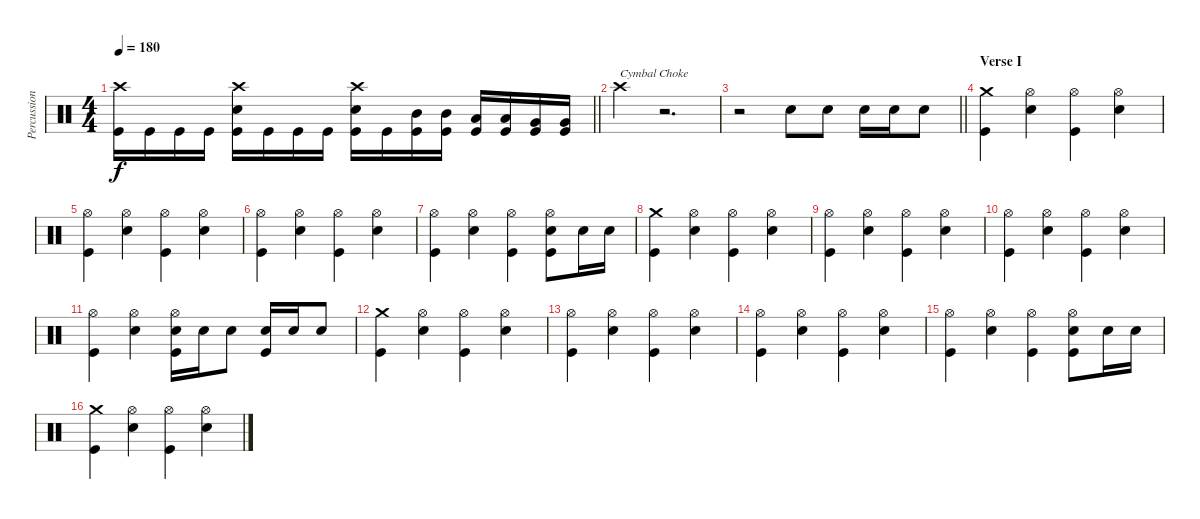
\track ("Percussion" "Percussion") {instrument percussion}
\staff {score}
\articulation defaults
\ts (4 4)
\tempo 180
\clef neutral
\barLineRight lightlight
\ks c
("Crash high (hit)" "Kick (hit)").16{dy f} "Kick (hit)".16 "Kick (hit)".16 "Kick (hit)".16 ("Crash high (hit)" "Electric Snare (hit)" "Kick (hit)").16 "Kick (hit)".16 "Kick (hit)".16 "Kick (hit)".16 ("Crash high (hit)" "Electric Snare (hit)" "Kick (hit)").16 "Kick (hit)".16 ("Mid Tom (hit)" "Kick (hit)").16 ("Mid Tom (hit)" "Kick (hit)").16 ("Low Tom (hit)" "Kick (hit)").16 ("Low Tom (hit)" "Kick (hit)").16 ("Very Low Tom (hit)" "Kick (hit)").16 ("Very Low Tom (hit)" "Kick (hit)").16 |
"Crash high (hit)".4{txt "Cymbal Choke"} r.2{d volume 0} |
\barLineRight lightlight
r.2 "Electric Snare (hit)".8{volume 13} "Electric Snare (hit)".8 "Electric Snare (hit)".16 "Electric Snare (hit)".16 "Electric Snare (hit)".8 |
\section ("" "Verse I")
("Crash medium (hit)" "Kick (hit)").4 ("Hi-Hat (open)" "Electric Snare (hit)").4 ("Hi-Hat (open)" "Kick (hit)").4 ("Hi-Hat (open)" "Electric Snare (hit)").4 |
("Hi-Hat (open)" "Kick (hit)").4 ("Hi-Hat (open)" "Electric Snare (hit)").4 ("Hi-Hat (open)" "Kick (hit)").4 ("Hi-Hat (open)" "Electric Snare (hit)").4 |
("Hi-Hat (open)" "Kick (hit)").4 ("Hi-Hat (open)" "Electric Snare (hit)").4 ("Hi-Hat (open)" "Kick (hit)").4 ("Hi-Hat (open)" "Electric Snare (hit)").4 |
("Hi-Hat (open)" "Kick (hit)").4 ("Hi-Hat (open)" "Electric Snare (hit)").4 ("Hi-Hat (open)" "Kick (hit)").4 ("Hi-Hat (open)" "Electric Snare (hit)" "Kick (hit)").8 "Electric Snare (hit)".16 "Electric Snare (hit)".16 |
("Crash medium (hit)" "Kick (hit)").4 ("Hi-Hat (open)" "Electric Snare (hit)").4 ("Hi-Hat (open)" "Kick (hit)").4 ("Hi-Hat (open)" "Electric Snare (hit)").4 |
("Hi-Hat (open)" "Kick (hit)").4 ("Hi-Hat (open)" "Electric Snare (hit)").4 ("Hi-Hat (open)" "Kick (hit)").4 ("Hi-Hat (open)" "Electric Snare (hit)").4 |
("Hi-Hat (open)" "Kick (hit)").4 ("Hi-Hat (open)" "Electric Snare (hit)").4 ("Hi-Hat (open)" "Kick (hit)").4 ("Hi-Hat (open)" "Electric Snare (hit)").4 |
("Hi-Hat (open)" "Kick (hit)").4 ("Hi-Hat (open)" "Electric Snare (hit)").4 ("Hi-Hat (open)" "Electric Snare (hit)" "Kick (hit)").16 "Electric Snare (hit)".16 "Electric Snare (hit)".8 ("Electric Snare (hit)" "Kick (hit)").16 "Electric Snare (hit)".16 "Electric Snare (hit)".8 |
("Crash medium (hit)" "Kick (hit)").4 ("Hi-Hat (open)" "Electric Snare (hit)").4 ("Hi-Hat (open)" "Kick (hit)").4 ("Hi-Hat (open)" "Electric Snare (hit)").4 |
("Hi-Hat (open)" "Kick (hit)").4 ("Hi-Hat (open)" "Electric Snare (hit)").4 ("Hi-Hat (open)" "Kick (hit)").4 ("Hi-Hat (open)" "Electric Snare (hit)").4 |
("Hi-Hat (open)" "Kick (hit)").4 ("Hi-Hat (open)" "Electric Snare (hit)").4 ("Hi-Hat (open)" "Kick (hit)").4 ("Hi-Hat (open)" "Electric Snare (hit)").4 |
("Hi-Hat (open)" "Kick (hit)").4 ("Hi-Hat (open)" "Electric Snare (hit)").4 ("Hi-Hat (open)" "Kick (hit)").4 ("Hi-Hat (open)" "Electric Snare (hit)" "Kick (hit)").8 "Electric Snare (hit)".16 "Electric Snare (hit)".16 |
("Crash medium (hit)" "Kick (hit)").4 ("Hi-Hat (open)" "Electric Snare (hit)").4 ("Hi-Hat (open)" "Kick (hit)").4 ("Hi-Hat (open)" "Electric Snare (hit)").4
